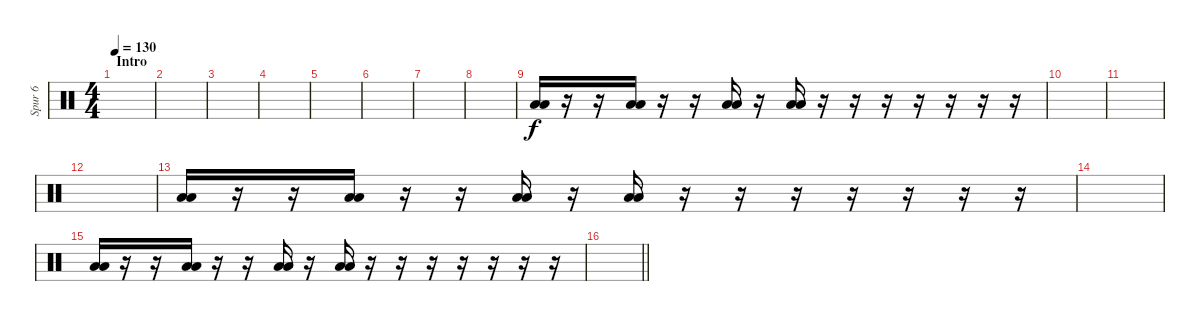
\track ("Spur 6" "Spur 6") {instrument percussion}
\staff {score}
\articulation defaults
\ts (4 4)
\section ("" "Intro")
\tempo 130
\clef neutral
\ks c
|
|
|
|
|
|
|
|
("Low Tom (hit)" "Low Floor Tom (hit)").16 r.16 r.16 ("Low Tom (hit)" "Low Floor Tom (hit)").16 r.16 r.16 ("Low Tom (hit)" "Low Floor Tom (hit)").16 r.16 ("Low Tom (hit)" "Low Floor Tom (hit)").16 r.16 r.16 r.16 r.16 r.16 r.16 r.16 |
|
|
|
("Low Tom (hit)" "Low Floor Tom (hit)").16 r.16 r.16 ("Low Tom (hit)" "Low Floor Tom (hit)").16 r.16 r.16 ("Low Tom (hit)" "Low Floor Tom (hit)").16 r.16 ("Low Tom (hit)" "Low Floor Tom (hit)").16 r.16 r.16 r.16 r.16 r.16 r.16 r.16 |
|
("Low Tom (hit)" "Low Floor Tom (hit)").16 r.16 r.16 ("Low Tom (hit)" "Low Floor Tom (hit)").16 r.16 r.16 ("Low Tom (hit)" "Low Floor Tom (hit)").16 r.16 ("Low Tom (hit)" "Low Floor Tom (hit)").16 r.16 r.16 r.16 r.16 r.16 r.16 r.16 |
\barLineRight lightlight
